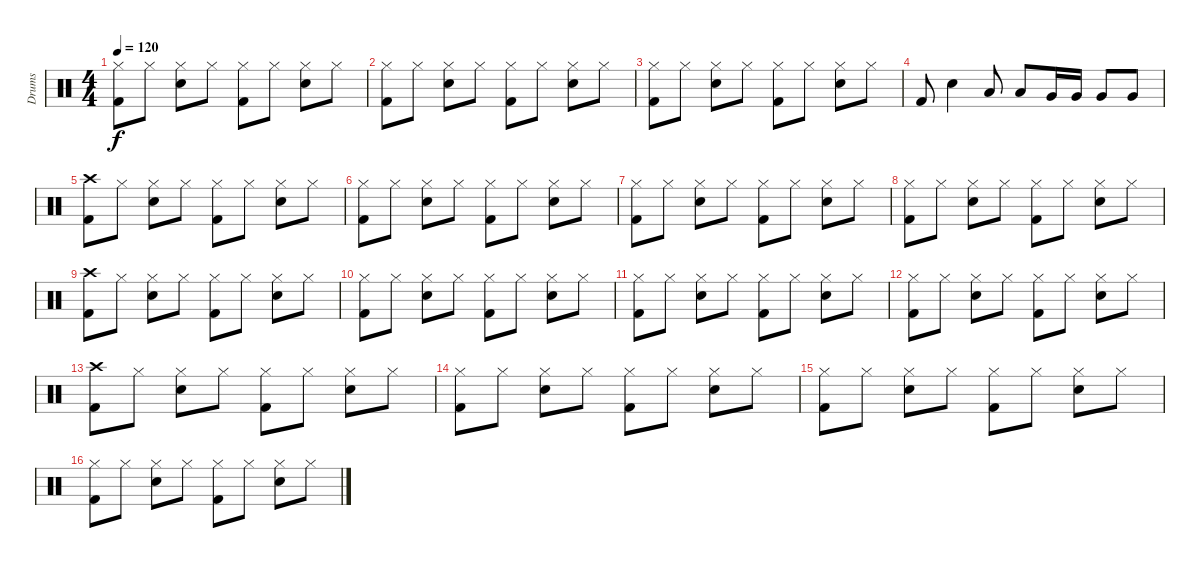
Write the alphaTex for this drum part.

\track ("Drums" "Drums") {instrument percussion}
\staff {score}
\articulation defaults
\ts (4 4)
\tempo 120
\clef neutral
\ks c
("Hi-Hat (closed)" "Kick (hit) 2").8{dy f} "Hi-Hat (closed)".8 ("Hi-Hat (closed)" "Electric Snare (hit)").8 "Hi-Hat (closed)".8 ("Hi-Hat (closed)" "Kick (hit) 2").8 "Hi-Hat (closed)".8 ("Hi-Hat (closed)" "Electric Snare (hit)").8 "Hi-Hat (closed)".8 |
("Hi-Hat (closed)" "Kick (hit) 2").8 "Hi-Hat (closed)".8 ("Hi-Hat (closed)" "Electric Snare (hit)").8 "Hi-Hat (closed)".8 ("Hi-Hat (closed)" "Kick (hit) 2").8 "Hi-Hat (closed)".8 ("Hi-Hat (closed)" "Electric Snare (hit)").8 "Hi-Hat (closed)".8 |
("Hi-Hat (closed)" "Kick (hit) 2").8 "Hi-Hat (closed)".8 ("Hi-Hat (closed)" "Electric Snare (hit)").8 "Hi-Hat (closed)".8 ("Hi-Hat (closed)" "Kick (hit) 2").8 "Hi-Hat (closed)".8 ("Hi-Hat (closed)" "Electric Snare (hit)").8 "Hi-Hat (closed)".8 |
"Kick (hit) 2".8 "Electric Snare (hit)".4 "Low Tom (hit)".8 "Low Tom (hit)".8 "Very Low Tom (hit)".16 "Very Low Tom (hit)".16 "Very Low Tom (hit)".8 "Very Low Tom (hit)".8 |
("Crash high (hit)" "Kick (hit) 2").8 "Hi-Hat (closed)".8 ("Hi-Hat (closed)" "Electric Snare (hit)").8 "Hi-Hat (closed)".8 ("Hi-Hat (closed)" "Kick (hit) 2").8 "Hi-Hat (closed)".8 ("Hi-Hat (closed)" "Electric Snare (hit)").8 "Hi-Hat (closed)".8 |
("Hi-Hat (closed)" "Kick (hit) 2").8 "Hi-Hat (closed)".8 ("Hi-Hat (closed)" "Electric Snare (hit)").8 "Hi-Hat (closed)".8 ("Hi-Hat (closed)" "Kick (hit) 2").8 "Hi-Hat (closed)".8 ("Hi-Hat (closed)" "Electric Snare (hit)").8 "Hi-Hat (closed)".8 |
("Hi-Hat (closed)" "Kick (hit) 2").8 "Hi-Hat (closed)".8 ("Hi-Hat (closed)" "Electric Snare (hit)").8 "Hi-Hat (closed)".8 ("Hi-Hat (closed)" "Kick (hit) 2").8 "Hi-Hat (closed)".8 ("Hi-Hat (closed)" "Electric Snare (hit)").8 "Hi-Hat (closed)".8 |
("Hi-Hat (closed)" "Kick (hit) 2").8 "Hi-Hat (closed)".8 ("Hi-Hat (closed)" "Electric Snare (hit)").8 "Hi-Hat (closed)".8 ("Hi-Hat (closed)" "Kick (hit) 2").8 "Hi-Hat (closed)".8 ("Hi-Hat (closed)" "Electric Snare (hit)").8 "Hi-Hat (closed)".8 |
("Crash high (hit)" "Kick (hit) 2").8 "Hi-Hat (closed)".8 ("Hi-Hat (closed)" "Electric Snare (hit)").8 "Hi-Hat (closed)".8 ("Hi-Hat (closed)" "Kick (hit) 2").8 "Hi-Hat (closed)".8 ("Hi-Hat (closed)" "Electric Snare (hit)").8 "Hi-Hat (closed)".8 |
("Hi-Hat (closed)" "Kick (hit) 2").8 "Hi-Hat (closed)".8 ("Hi-Hat (closed)" "Electric Snare (hit)").8 "Hi-Hat (closed)".8 ("Hi-Hat (closed)" "Kick (hit) 2").8 "Hi-Hat (closed)".8 ("Hi-Hat (closed)" "Electric Snare (hit)").8 "Hi-Hat (closed)".8 |
("Hi-Hat (closed)" "Kick (hit) 2").8 "Hi-Hat (closed)".8 ("Hi-Hat (closed)" "Electric Snare (hit)").8 "Hi-Hat (closed)".8 ("Hi-Hat (closed)" "Kick (hit) 2").8 "Hi-Hat (closed)".8 ("Hi-Hat (closed)" "Electric Snare (hit)").8 "Hi-Hat (closed)".8 |
("Hi-Hat (closed)" "Kick (hit) 2").8 "Hi-Hat (closed)".8 ("Hi-Hat (closed)" "Electric Snare (hit)").8 "Hi-Hat (closed)".8 ("Hi-Hat (closed)" "Kick (hit) 2").8 "Hi-Hat (closed)".8 ("Hi-Hat (closed)" "Electric Snare (hit)").8 "Hi-Hat (closed)".8 |
("Crash high (hit)" "Kick (hit) 2").8 "Hi-Hat (closed)".8 ("Hi-Hat (closed)" "Electric Snare (hit)").8 "Hi-Hat (closed)".8 ("Hi-Hat (closed)" "Kick (hit) 2").8 "Hi-Hat (closed)".8 ("Hi-Hat (closed)" "Electric Snare (hit)").8 "Hi-Hat (closed)".8 |
("Hi-Hat (closed)" "Kick (hit) 2").8 "Hi-Hat (closed)".8 ("Hi-Hat (closed)" "Electric Snare (hit)").8 "Hi-Hat (closed)".8 ("Hi-Hat (closed)" "Kick (hit) 2").8 "Hi-Hat (closed)".8 ("Hi-Hat (closed)" "Electric Snare (hit)").8 "Hi-Hat (closed)".8 |
("Hi-Hat (closed)" "Kick (hit) 2").8 "Hi-Hat (closed)".8 ("Hi-Hat (closed)" "Electric Snare (hit)").8 "Hi-Hat (closed)".8 ("Hi-Hat (closed)" "Kick (hit) 2").8 "Hi-Hat (closed)".8 ("Hi-Hat (closed)" "Electric Snare (hit)").8 "Hi-Hat (closed)".8 |
("Hi-Hat (closed)" "Kick (hit) 2").8 "Hi-Hat (closed)".8 ("Hi-Hat (closed)" "Electric Snare (hit)").8 "Hi-Hat (closed)".8 ("Hi-Hat (closed)" "Kick (hit) 2").8 "Hi-Hat (closed)".8 ("Hi-Hat (closed)" "Electric Snare (hit)").8 "Hi-Hat (closed)".8
